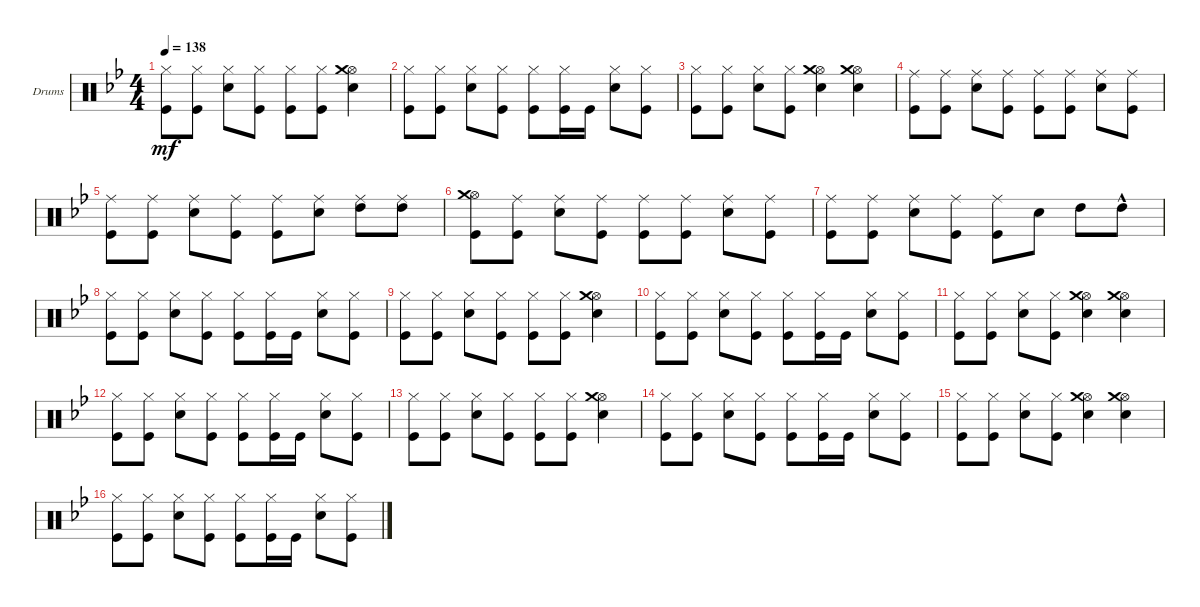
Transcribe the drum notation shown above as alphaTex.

\defaultSystemsLayout 4
\bracketExtendMode groupsimilarinstruments
\firstSystemTrackNameOrientation horizontal
\otherSystemsTrackNameOrientation horizontal
\track ("Drumkit" "Drums") {instrument percussion}
\staff {score}
\articulation defaults
\ts (4 4)
\tempo 138
\clef neutral
\ks gminor
("Hi-Hat (closed)" "Kick (hit)").8{dy mf} ("Hi-Hat (closed)" "Kick (hit)").8 ("Hi-Hat (closed)" "Snare (hit) 2").8 ("Hi-Hat (closed)" "Kick (hit)").8 ("Hi-Hat (closed)" "Kick (hit)").8 ("Hi-Hat (closed)" "Kick (hit)").8 ("Hi-Hat (open)" "Crash medium (hit)" "Snare (hit) 2").4 |
("Hi-Hat (closed)" "Kick (hit)").8 ("Hi-Hat (closed)" "Kick (hit)").8 ("Hi-Hat (closed)" "Snare (hit) 2").8 ("Hi-Hat (closed)" "Kick (hit)").8 ("Hi-Hat (closed)" "Kick (hit)").8 ("Hi-Hat (closed)" "Kick (hit)").16 "Kick (hit)".16 ("Hi-Hat (closed)" "Snare (hit) 2").8 ("Hi-Hat (closed)" "Kick (hit)").8 |
("Hi-Hat (closed)" "Kick (hit)").8 ("Hi-Hat (closed)" "Kick (hit)").8 ("Hi-Hat (closed)" "Snare (hit) 2").8 ("Hi-Hat (closed)" "Kick (hit)").8 ("Hi-Hat (open)" "Crash medium (hit)" "Snare (hit) 2").4 ("Hi-Hat (open)" "Crash medium (hit)" "Snare (hit) 2").4 |
("Ride (middle)" "Kick (hit)").8 ("Ride (middle)" "Kick (hit)").8 ("Ride (middle)" "Snare (hit) 2").8 ("Ride (middle)" "Kick (hit)").8 ("Ride (middle)" "Kick (hit)").8 ("Ride (middle)" "Kick (hit)").8 ("Ride (middle)" "Snare (hit) 2").8 ("Ride (middle)" "Kick (hit)").8 |
("Ride (middle)" "Kick (hit)").8 ("Ride (middle)" "Kick (hit)").8 ("Ride (middle)" "Snare (hit) 2").8 ("Ride (middle)" "Kick (hit)").8 ("Ride (middle)" "Kick (hit)").8 ("Ride (middle)" "Snare (hit) 2").8 ("Ride (middle)" "High Tom (hit)").8 ("Ride (middle)" "High Tom (hit)").8 |
("Hi-Hat (open)" "Crash medium (hit)" "Kick (hit)").8 ("Ride (middle)" "Kick (hit)").8 ("Ride (middle)" "Snare (hit) 2").8 ("Ride (middle)" "Kick (hit)").8 ("Ride (middle)" "Kick (hit)").8 ("Ride (middle)" "Kick (hit)").8 ("Ride (middle)" "Snare (hit) 2").8 ("Ride (middle)" "Kick (hit)").8 |
("Kick (hit)" "Ride (middle)").8 ("Kick (hit)" "Ride (middle)").8 ("Ride (middle)" "Snare (hit) 2").8 ("Ride (middle)" "Kick (hit)").8 ("Kick (hit)" "Ride (middle)").8 "Snare (hit) 2".8 "High Tom (hit)".8 "High Tom (hit)"{hac}.8 |
("Hi-Hat (closed)" "Kick (hit)").8 ("Hi-Hat (closed)" "Kick (hit)").8 ("Hi-Hat (closed)" "Snare (hit) 2").8 ("Hi-Hat (closed)" "Kick (hit)").8 ("Hi-Hat (closed)" "Kick (hit)").8 ("Hi-Hat (closed)" "Kick (hit)").16 "Kick (hit)".16 ("Hi-Hat (closed)" "Snare (hit) 2").8 ("Hi-Hat (closed)" "Kick (hit)").8 |
("Hi-Hat (closed)" "Kick (hit)").8 ("Hi-Hat (closed)" "Kick (hit)").8 ("Hi-Hat (closed)" "Snare (hit) 2").8 ("Hi-Hat (closed)" "Kick (hit)").8 ("Hi-Hat (closed)" "Kick (hit)").8 ("Hi-Hat (closed)" "Kick (hit)").8 ("Hi-Hat (open)" "Crash medium (hit)" "Snare (hit) 2").4 |
("Hi-Hat (closed)" "Kick (hit)").8 ("Hi-Hat (closed)" "Kick (hit)").8 ("Hi-Hat (closed)" "Snare (hit) 2").8 ("Hi-Hat (closed)" "Kick (hit)").8 ("Hi-Hat (closed)" "Kick (hit)").8 ("Hi-Hat (closed)" "Kick (hit)").16 "Kick (hit)".16 ("Hi-Hat (closed)" "Snare (hit) 2").8 ("Hi-Hat (closed)" "Kick (hit)").8 |
("Hi-Hat (closed)" "Kick (hit)").8 ("Hi-Hat (closed)" "Kick (hit)").8 ("Hi-Hat (closed)" "Snare (hit) 2").8 ("Hi-Hat (closed)" "Kick (hit)").8 ("Hi-Hat (open)" "Crash medium (hit)" "Snare (hit) 2").4 ("Hi-Hat (open)" "Crash medium (hit)" "Snare (hit) 2").4 |
("Hi-Hat (closed)" "Kick (hit)").8 ("Hi-Hat (closed)" "Kick (hit)").8 ("Hi-Hat (closed)" "Snare (hit) 2").8 ("Hi-Hat (closed)" "Kick (hit)").8 ("Hi-Hat (closed)" "Kick (hit)").8 ("Hi-Hat (closed)" "Kick (hit)").16 "Kick (hit)".16 ("Hi-Hat (closed)" "Snare (hit) 2").8 ("Hi-Hat (closed)" "Kick (hit)").8 |
("Hi-Hat (closed)" "Kick (hit)").8 ("Hi-Hat (closed)" "Kick (hit)").8 ("Hi-Hat (closed)" "Snare (hit) 2").8 ("Hi-Hat (closed)" "Kick (hit)").8 ("Hi-Hat (closed)" "Kick (hit)").8 ("Hi-Hat (closed)" "Kick (hit)").8 ("Hi-Hat (open)" "Crash medium (hit)" "Snare (hit) 2").4 |
("Hi-Hat (closed)" "Kick (hit)").8 ("Hi-Hat (closed)" "Kick (hit)").8 ("Hi-Hat (closed)" "Snare (hit) 2").8 ("Hi-Hat (closed)" "Kick (hit)").8 ("Hi-Hat (closed)" "Kick (hit)").8 ("Hi-Hat (closed)" "Kick (hit)").16 "Kick (hit)".16 ("Hi-Hat (closed)" "Snare (hit) 2").8 ("Hi-Hat (closed)" "Kick (hit)").8 |
("Hi-Hat (closed)" "Kick (hit)").8 ("Hi-Hat (closed)" "Kick (hit)").8 ("Hi-Hat (closed)" "Snare (hit) 2").8 ("Hi-Hat (closed)" "Kick (hit)").8 ("Hi-Hat (open)" "Crash medium (hit)" "Snare (hit) 2").4 ("Hi-Hat (open)" "Crash medium (hit)" "Snare (hit) 2").4 |
("Hi-Hat (closed)" "Kick (hit)").8 ("Hi-Hat (closed)" "Kick (hit)").8 ("Hi-Hat (closed)" "Snare (hit) 2").8 ("Hi-Hat (closed)" "Kick (hit)").8 ("Hi-Hat (closed)" "Kick (hit)").8 ("Hi-Hat (closed)" "Kick (hit)").16 "Kick (hit)".16 ("Hi-Hat (closed)" "Snare (hit) 2").8 ("Hi-Hat (closed)" "Kick (hit)").8
